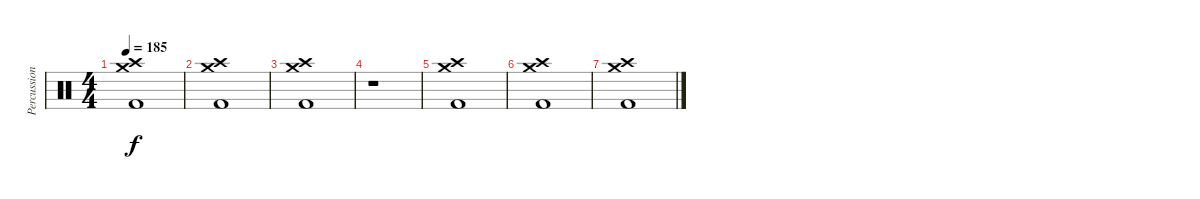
\track ("Percussions" "Percussion") {instrument percussion}
\staff {score}
\articulation defaults
\ts (4 4)
\tempo 185
\clef neutral
\ks c
("Kick (hit) 2" "Crash medium (hit)" "Crash high (hit)").1{dy f} |
("Kick (hit) 2" "Crash medium (hit)" "Crash high (hit)").1 |
("Kick (hit) 2" "Crash medium (hit)" "Crash high (hit)").1 |
r.1 |
("Kick (hit) 2" "Crash medium (hit)" "Crash high (hit)").1 |
("Kick (hit) 2" "Crash medium (hit)" "Crash high (hit)").1 |
("Kick (hit) 2" "Crash medium (hit)" "Crash high (hit)").1
